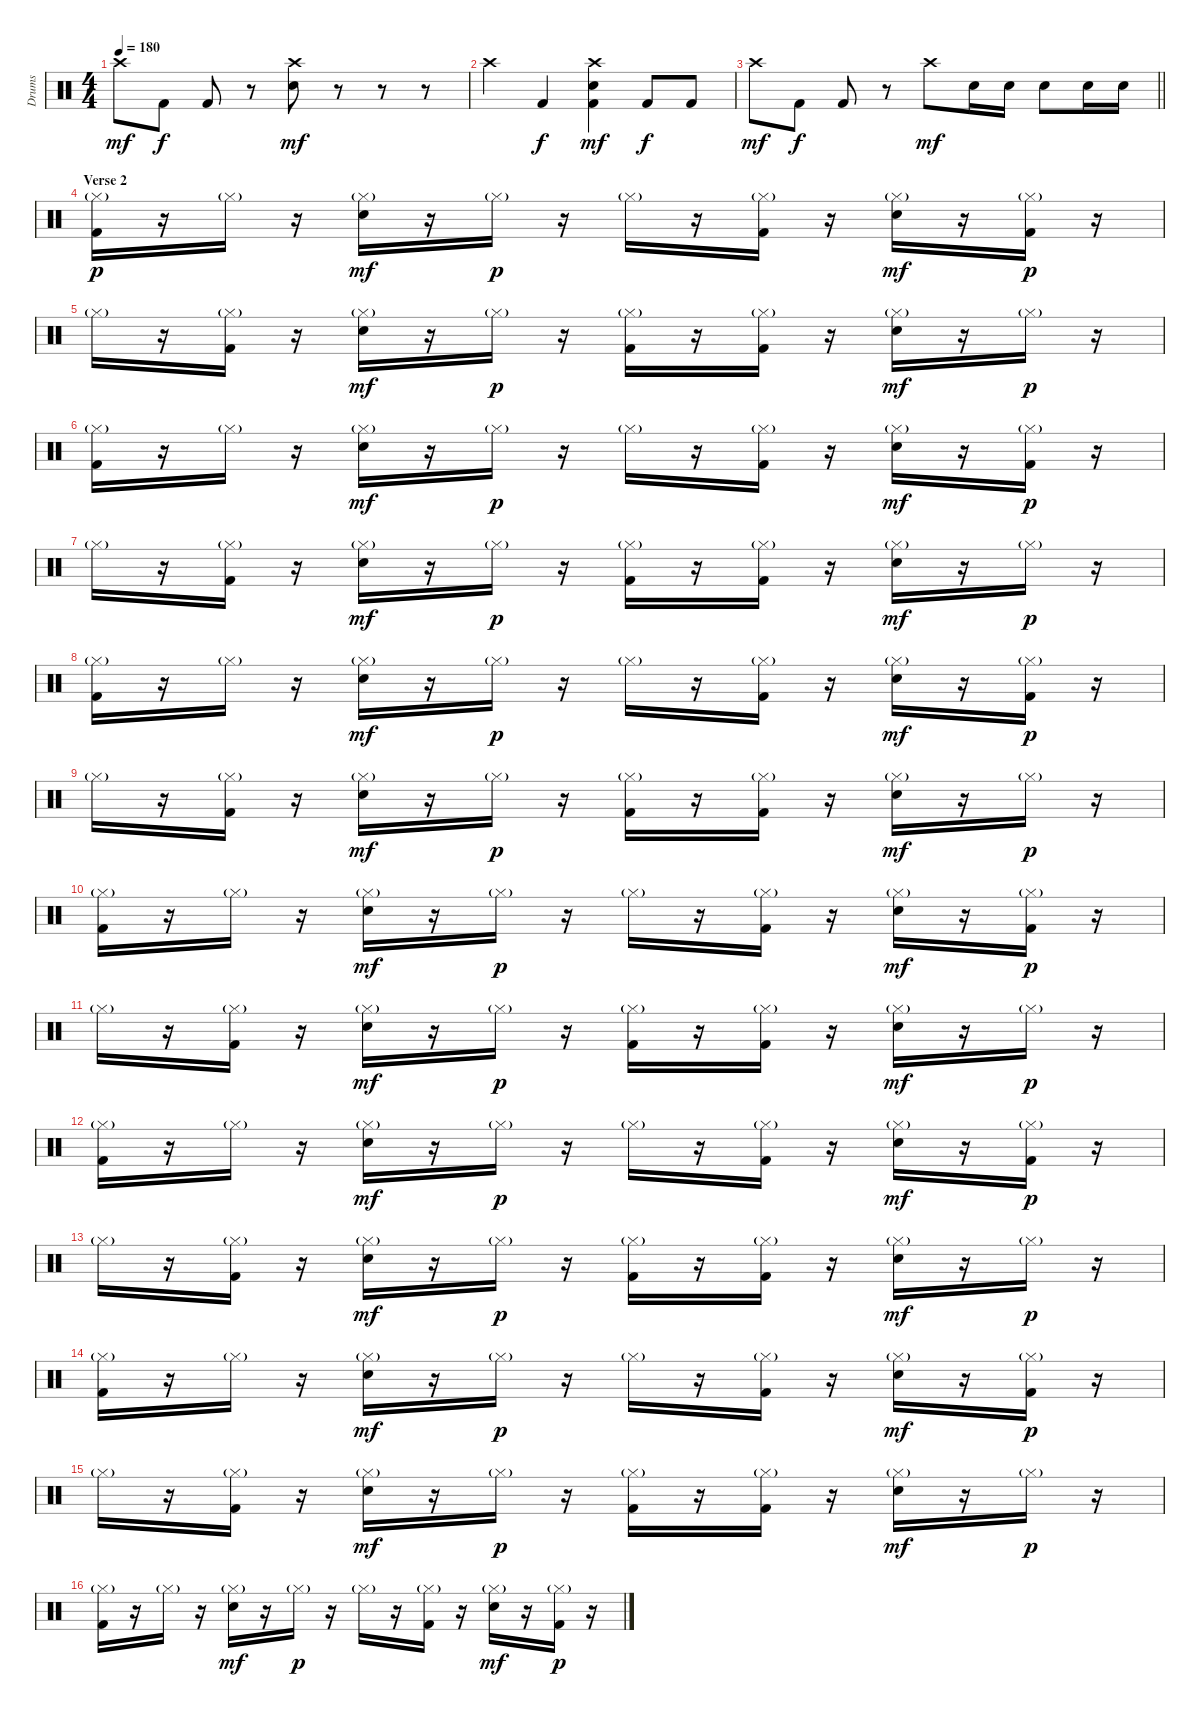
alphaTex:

\track ("Drums" "Drums") {instrument percussion}
\staff {score}
\articulation defaults
\ts (4 4)
\tempo 180
\clef neutral
\ks c "Crash high (hit)".8{dy mf} "Kick (hit) 2".8{dy f} "Kick (hit) 2".8
r.8 ("Crash high (hit)" "Electric Snare (hit)").8{dy mf} r.8 r.8 r.8 |
"Crash high (hit)".4 "Kick (hit) 2".4{dy f} ("Crash high (hit)" "Electric Snare (hit)" "Kick (hit) 2").4{dy mf} "Kick (hit) 2".8{dy f} "Kick (hit) 2".8 |
\barLineRight lightlight "Crash high (hit)".8{dy mf} "Kick (hit) 2".8{dy f} "Kick (hit) 2".8
r.8 "Crash high (hit)".8{dy mf} "Electric Snare (hit)".16 "Electric Snare (hit)".16 "Electric Snare (hit)".8 "Electric Snare (hit)".16 "Electric Snare (hit)".16 |
\section ("" "Verse 2")
("Hi-Hat (closed)"{g} "Kick (hit) 2").16{dy p volume 11} r.16 "Hi-Hat (closed)"{g}.16 r.16 ("Hi-Hat (closed)"{g} "Electric Snare (hit)").16{dy mf} r.16 "Hi-Hat (closed)"{g}.16{dy p} r.16 "Hi-Hat (closed)"{g}.16 r.16 ("Hi-Hat (closed)"{g} "Kick (hit) 2").16 r.16 ("Hi-Hat (closed)"{g} "Electric Snare (hit)").16{dy mf} r.16 ("Hi-Hat (closed)"{g} "Kick (hit) 2").16{dy p} r.16 |
"Hi-Hat (closed)"{g}.16 r.16 ("Hi-Hat (closed)"{g} "Kick (hit) 2").16 r.16 ("Hi-Hat (closed)"{g} "Electric Snare (hit)").16{dy mf} r.16 "Hi-Hat (closed)"{g}.16{dy p} r.16 ("Hi-Hat (closed)"{g} "Kick (hit) 2").16 r.16 ("Hi-Hat (closed)"{g} "Kick (hit) 2").16 r.16 ("Hi-Hat (closed)"{g} "Electric Snare (hit)").16{dy mf} r.16 "Hi-Hat (closed)"{g}.16{dy p} r.16 |
("Hi-Hat (closed)"{g} "Kick (hit) 2").16 r.16 "Hi-Hat (closed)"{g}.16 r.16 ("Hi-Hat (closed)"{g} "Electric Snare (hit)").16{dy mf} r.16 "Hi-Hat (closed)"{g}.16{dy p} r.16 "Hi-Hat (closed)"{g}.16 r.16 ("Hi-Hat (closed)"{g} "Kick (hit) 2").16 r.16 ("Hi-Hat (closed)"{g} "Electric Snare (hit)").16{dy mf} r.16 ("Hi-Hat (closed)"{g} "Kick (hit) 2").16{dy p} r.16 |
"Hi-Hat (closed)"{g}.16 r.16 ("Hi-Hat (closed)"{g} "Kick (hit) 2").16 r.16 ("Hi-Hat (closed)"{g} "Electric Snare (hit)").16{dy mf} r.16 "Hi-Hat (closed)"{g}.16{dy p} r.16 ("Hi-Hat (closed)"{g} "Kick (hit) 2").16 r.16 ("Hi-Hat (closed)"{g} "Kick (hit) 2").16 r.16 ("Hi-Hat (closed)"{g} "Electric Snare (hit)").16{dy mf} r.16 "Hi-Hat (closed)"{g}.16{dy p} r.16 |
("Hi-Hat (closed)"{g} "Kick (hit) 2").16 r.16 "Hi-Hat (closed)"{g}.16 r.16 ("Hi-Hat (closed)"{g} "Electric Snare (hit)").16{dy mf} r.16 "Hi-Hat (closed)"{g}.16{dy p} r.16 "Hi-Hat (closed)"{g}.16 r.16 ("Hi-Hat (closed)"{g} "Kick (hit) 2").16 r.16 ("Hi-Hat (closed)"{g} "Electric Snare (hit)").16{dy mf} r.16 ("Hi-Hat (closed)"{g} "Kick (hit) 2").16{dy p} r.16 |
"Hi-Hat (closed)"{g}.16 r.16 ("Hi-Hat (closed)"{g} "Kick (hit) 2").16 r.16 ("Hi-Hat (closed)"{g} "Electric Snare (hit)").16{dy mf} r.16 "Hi-Hat (closed)"{g}.16{dy p} r.16 ("Hi-Hat (closed)"{g} "Kick (hit) 2").16 r.16 ("Hi-Hat (closed)"{g} "Kick (hit) 2").16 r.16 ("Hi-Hat (closed)"{g} "Electric Snare (hit)").16{dy mf} r.16 "Hi-Hat (closed)"{g}.16{dy p} r.16 |
("Hi-Hat (closed)"{g} "Kick (hit) 2").16 r.16 "Hi-Hat (closed)"{g}.16 r.16 ("Hi-Hat (closed)"{g} "Electric Snare (hit)").16{dy mf} r.16 "Hi-Hat (closed)"{g}.16{dy p} r.16 "Hi-Hat (closed)"{g}.16 r.16 ("Hi-Hat (closed)"{g} "Kick (hit) 2").16 r.16 ("Hi-Hat (closed)"{g} "Electric Snare (hit)").16{dy mf} r.16 ("Hi-Hat (closed)"{g} "Kick (hit) 2").16{dy p} r.16 |
"Hi-Hat (closed)"{g}.16 r.16 ("Hi-Hat (closed)"{g} "Kick (hit) 2").16 r.16 ("Hi-Hat (closed)"{g} "Electric Snare (hit)").16{dy mf} r.16 "Hi-Hat (closed)"{g}.16{dy p} r.16 ("Hi-Hat (closed)"{g} "Kick (hit) 2").16 r.16 ("Hi-Hat (closed)"{g} "Kick (hit) 2").16 r.16 ("Hi-Hat (closed)"{g} "Electric Snare (hit)").16{dy mf} r.16 "Hi-Hat (closed)"{g}.16{dy p} r.16 |
("Hi-Hat (closed)"{g} "Kick (hit) 2").16 r.16 "Hi-Hat (closed)"{g}.16 r.16 ("Hi-Hat (closed)"{g} "Electric Snare (hit)").16{dy mf} r.16 "Hi-Hat (closed)"{g}.16{dy p} r.16 "Hi-Hat (closed)"{g}.16 r.16 ("Hi-Hat (closed)"{g} "Kick (hit) 2").16 r.16 ("Hi-Hat (closed)"{g} "Electric Snare (hit)").16{dy mf} r.16 ("Hi-Hat (closed)"{g} "Kick (hit) 2").16{dy p} r.16 |
"Hi-Hat (closed)"{g}.16 r.16 ("Hi-Hat (closed)"{g} "Kick (hit) 2").16 r.16 ("Hi-Hat (closed)"{g} "Electric Snare (hit)").16{dy mf} r.16 "Hi-Hat (closed)"{g}.16{dy p} r.16 ("Hi-Hat (closed)"{g} "Kick (hit) 2").16 r.16 ("Hi-Hat (closed)"{g} "Kick (hit) 2").16 r.16 ("Hi-Hat (closed)"{g} "Electric Snare (hit)").16{dy mf} r.16 "Hi-Hat (closed)"{g}.16{dy p} r.16 |
("Hi-Hat (closed)"{g} "Kick (hit) 2").16 r.16 "Hi-Hat (closed)"{g}.16 r.16 ("Hi-Hat (closed)"{g} "Electric Snare (hit)").16{dy mf} r.16 "Hi-Hat (closed)"{g}.16{dy p} r.16 "Hi-Hat (closed)"{g}.16 r.16 ("Hi-Hat (closed)"{g} "Kick (hit) 2").16 r.16 ("Hi-Hat (closed)"{g} "Electric Snare (hit)").16{dy mf} r.16 ("Hi-Hat (closed)"{g} "Kick (hit) 2").16{dy p} r.16 |
"Hi-Hat (closed)"{g}.16 r.16 ("Hi-Hat (closed)"{g} "Kick (hit) 2").16 r.16 ("Hi-Hat (closed)"{g} "Electric Snare (hit)").16{dy mf} r.16 "Hi-Hat (closed)"{g}.16{dy p} r.16 ("Hi-Hat (closed)"{g} "Kick (hit) 2").16 r.16 ("Hi-Hat (closed)"{g} "Kick (hit) 2").16 r.16 ("Hi-Hat (closed)"{g} "Electric Snare (hit)").16{dy mf} r.16 "Hi-Hat (closed)"{g}.16{dy p} r.16 |
("Hi-Hat (closed)"{g} "Kick (hit) 2").16 r.16 "Hi-Hat (closed)"{g}.16 r.16 ("Hi-Hat (closed)"{g} "Electric Snare (hit)").16{dy mf} r.16 "Hi-Hat (closed)"{g}.16{dy p} r.16 "Hi-Hat (closed)"{g}.16 r.16 ("Hi-Hat (closed)"{g} "Kick (hit) 2").16 r.16 ("Hi-Hat (closed)"{g} "Electric Snare (hit)").16{dy mf} r.16 ("Hi-Hat (closed)"{g} "Kick (hit) 2").16{dy p} r.16
